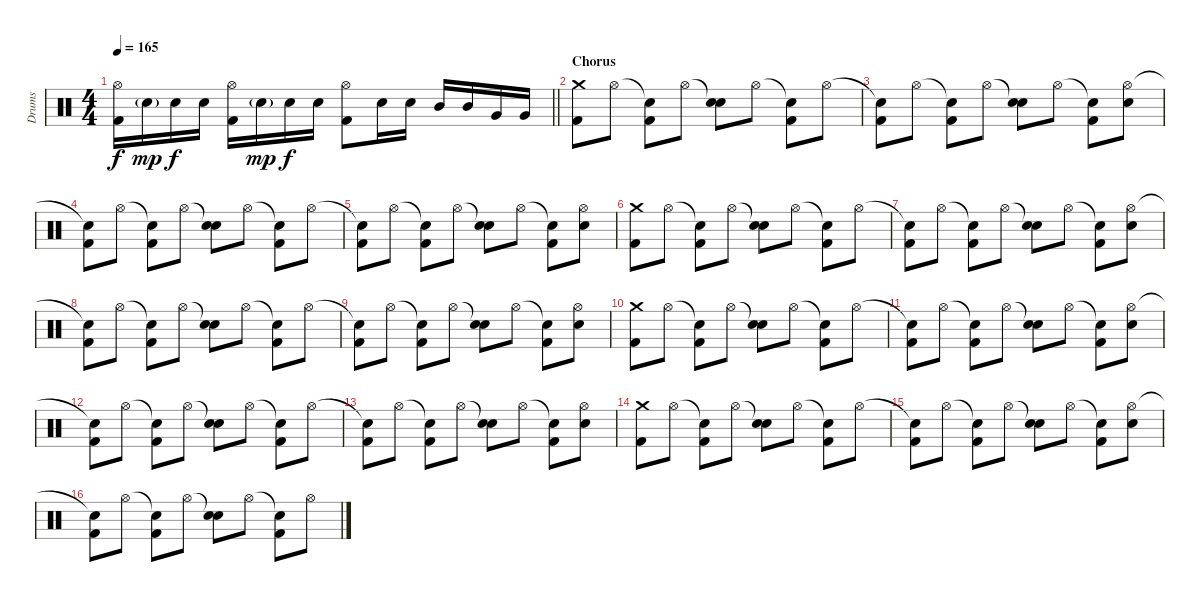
\track ("Drums" "Drums") {instrument percussion}
\staff {score}
\articulation defaults
\ts (4 4)
\tempo 165
\clef neutral
\barLineRight lightlight
\ks c
("Hi-Hat (open)" "Kick (hit) 2").16{dy f} "Electric Snare (hit)"{g}.16{dy mp} "Electric Snare (hit)".16{dy f} "Electric Snare (hit)".16 ("Hi-Hat (open)" "Kick (hit) 2").16 "Electric Snare (hit)"{g}.16{dy mp} "Electric Snare (hit)".16{dy f} "Electric Snare (hit)".16 ("Hi-Hat (open)" "Kick (hit) 2").8 "Electric Snare (hit)".16 "Electric Snare (hit)".16 "Mid Tom (hit)".16 "Mid Tom (hit)".16 "Very Low Tom (hit)".16 "Very Low Tom (hit)".16 |
\section ("" "Chorus")
("Crash medium (hit)" "Kick (hit) 2").8 "Hi-Hat (open)".8 ("Snare (hit)"{t} "Kick (hit) 2").8 "Hi-Hat (open)".8 ("Snare (hit)"{t} "Electric Snare (hit)").8 "Hi-Hat (open)".8 ("Snare (hit)"{t} "Kick (hit) 2").8 "Hi-Hat (open)".8 |
("Snare (hit)"{t} "Kick (hit) 2").8 "Hi-Hat (open)".8 ("Snare (hit)"{t} "Kick (hit) 2").8 "Hi-Hat (open)".8 ("Snare (hit)"{t} "Electric Snare (hit)").8 "Hi-Hat (open)".8 ("Snare (hit)"{t} "Kick (hit) 2").8 ("Hi-Hat (open)" "Electric Snare (hit)").8 |
("Snare (hit)"{t} "Kick (hit) 2").8 "Hi-Hat (open)".8 ("Snare (hit)"{t} "Kick (hit) 2").8 "Hi-Hat (open)".8 ("Snare (hit)"{t} "Electric Snare (hit)").8 "Hi-Hat (open)".8 ("Snare (hit)"{t} "Kick (hit) 2").8 "Hi-Hat (open)".8 |
("Snare (hit)"{t} "Kick (hit) 2").8 "Hi-Hat (open)".8 ("Snare (hit)"{t} "Kick (hit) 2").8 "Hi-Hat (open)".8 ("Snare (hit)"{t} "Electric Snare (hit)").8 "Hi-Hat (open)".8 ("Snare (hit)"{t} "Kick (hit) 2").8 ("Hi-Hat (open)" "Electric Snare (hit)").8 |
("Crash medium (hit)" "Kick (hit) 2").8 "Hi-Hat (open)".8 ("Snare (hit)"{t} "Kick (hit) 2").8 "Hi-Hat (open)".8 ("Snare (hit)"{t} "Electric Snare (hit)").8 "Hi-Hat (open)".8 ("Snare (hit)"{t} "Kick (hit) 2").8 "Hi-Hat (open)".8 |
("Snare (hit)"{t} "Kick (hit) 2").8 "Hi-Hat (open)".8 ("Snare (hit)"{t} "Kick (hit) 2").8 "Hi-Hat (open)".8 ("Snare (hit)"{t} "Electric Snare (hit)").8 "Hi-Hat (open)".8 ("Snare (hit)"{t} "Kick (hit) 2").8 ("Hi-Hat (open)" "Electric Snare (hit)").8 |
("Snare (hit)"{t} "Kick (hit) 2").8 "Hi-Hat (open)".8 ("Snare (hit)"{t} "Kick (hit) 2").8 "Hi-Hat (open)".8 ("Snare (hit)"{t} "Electric Snare (hit)").8 "Hi-Hat (open)".8 ("Snare (hit)"{t} "Kick (hit) 2").8 "Hi-Hat (open)".8 |
("Snare (hit)"{t} "Kick (hit) 2").8 "Hi-Hat (open)".8 ("Snare (hit)"{t} "Kick (hit) 2").8 "Hi-Hat (open)".8 ("Snare (hit)"{t} "Electric Snare (hit)").8 "Hi-Hat (open)".8 ("Snare (hit)"{t} "Kick (hit) 2").8 ("Hi-Hat (open)" "Electric Snare (hit)").8 |
("Crash medium (hit)" "Kick (hit) 2").8 "Hi-Hat (open)".8 ("Snare (hit)"{t} "Kick (hit) 2").8 "Hi-Hat (open)".8 ("Snare (hit)"{t} "Electric Snare (hit)").8 "Hi-Hat (open)".8 ("Snare (hit)"{t} "Kick (hit) 2").8 "Hi-Hat (open)".8 |
("Snare (hit)"{t} "Kick (hit) 2").8 "Hi-Hat (open)".8 ("Snare (hit)"{t} "Kick (hit) 2").8 "Hi-Hat (open)".8 ("Snare (hit)"{t} "Electric Snare (hit)").8 "Hi-Hat (open)".8 ("Snare (hit)"{t} "Kick (hit) 2").8 ("Hi-Hat (open)" "Electric Snare (hit)").8 |
("Snare (hit)"{t} "Kick (hit) 2").8 "Hi-Hat (open)".8 ("Snare (hit)"{t} "Kick (hit) 2").8 "Hi-Hat (open)".8 ("Snare (hit)"{t} "Electric Snare (hit)").8 "Hi-Hat (open)".8 ("Snare (hit)"{t} "Kick (hit) 2").8 "Hi-Hat (open)".8 |
("Snare (hit)"{t} "Kick (hit) 2").8 "Hi-Hat (open)".8 ("Snare (hit)"{t} "Kick (hit) 2").8 "Hi-Hat (open)".8 ("Snare (hit)"{t} "Electric Snare (hit)").8 "Hi-Hat (open)".8 ("Snare (hit)"{t} "Kick (hit) 2").8 ("Hi-Hat (open)" "Electric Snare (hit)").8 |
("Crash medium (hit)" "Kick (hit) 2").8 "Hi-Hat (open)".8 ("Snare (hit)"{t} "Kick (hit) 2").8 "Hi-Hat (open)".8 ("Snare (hit)"{t} "Electric Snare (hit)").8 "Hi-Hat (open)".8 ("Snare (hit)"{t} "Kick (hit) 2").8 "Hi-Hat (open)".8 |
("Snare (hit)"{t} "Kick (hit) 2").8 "Hi-Hat (open)".8 ("Snare (hit)"{t} "Kick (hit) 2").8 "Hi-Hat (open)".8 ("Snare (hit)"{t} "Electric Snare (hit)").8 "Hi-Hat (open)".8 ("Snare (hit)"{t} "Kick (hit) 2").8 ("Hi-Hat (open)" "Electric Snare (hit)").8 |
("Snare (hit)"{t} "Kick (hit) 2").8 "Hi-Hat (open)".8 ("Snare (hit)"{t} "Kick (hit) 2").8 "Hi-Hat (open)".8 ("Snare (hit)"{t} "Electric Snare (hit)").8 "Hi-Hat (open)".8 ("Snare (hit)"{t} "Kick (hit) 2").8 "Hi-Hat (open)".8
